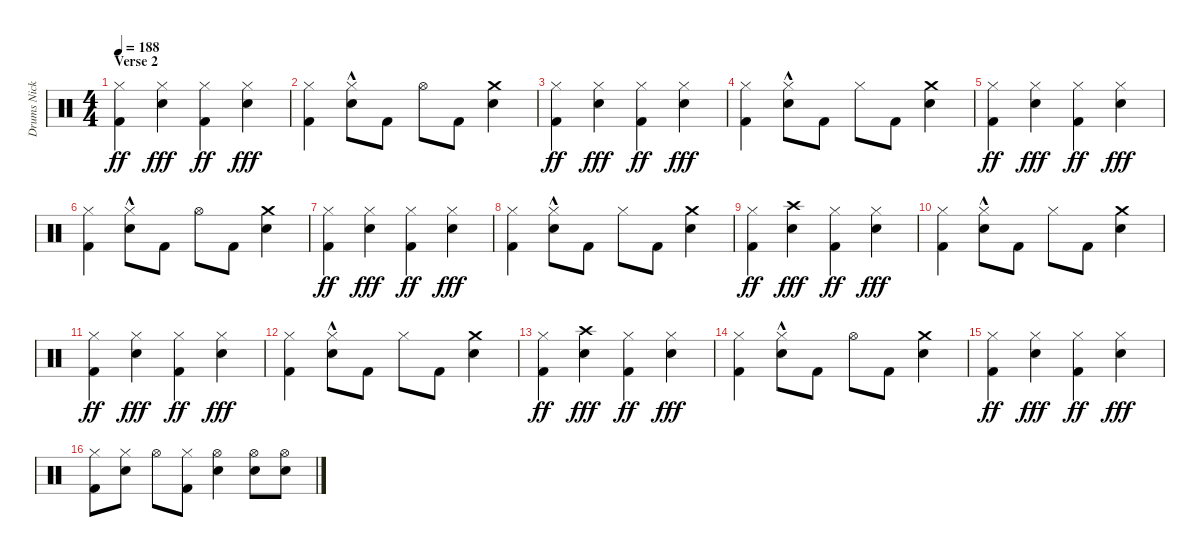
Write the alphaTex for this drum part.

\track ("Drums Nicko McBrain" "Drums Nick") {instrument percussion}
\staff {score}
\articulation defaults
\ts (4 4)
\section ("" "Verse 2")
\tempo 188
\clef neutral
\ks c
("Hi-Hat (closed)" "Kick (hit) 2").4{dy ff} ("Hi-Hat (closed)" "Electric Snare (hit)").4{dy fff} ("Hi-Hat (closed)" "Kick (hit) 2").4{dy ff} ("Hi-Hat (closed)" "Electric Snare (hit)").4{dy fff} |
("Hi-Hat (closed)" "Kick (hit) 2").4 ("Hi-Hat (closed)" "Electric Snare (hit)"{hac}).8 "Kick (hit) 2".8 "Hi-Hat (open)".8 "Kick (hit) 2".8 ("Crash medium (hit)" "Electric Snare (hit)").4 |
("Hi-Hat (closed)" "Kick (hit) 2").4{dy ff} ("Hi-Hat (closed)" "Electric Snare (hit)").4{dy fff} ("Hi-Hat (closed)" "Kick (hit) 2").4{dy ff} ("Hi-Hat (closed)" "Electric Snare (hit)").4{dy fff} |
("Hi-Hat (closed)" "Kick (hit) 2").4 ("Hi-Hat (closed)" "Electric Snare (hit)"{hac}).8 "Kick (hit) 2".8 "Hi-Hat (closed)".8 "Kick (hit) 2".8 ("Crash medium (hit)" "Electric Snare (hit)").4 |
("Hi-Hat (closed)" "Kick (hit) 2").4{dy ff} ("Hi-Hat (closed)" "Electric Snare (hit)").4{dy fff} ("Hi-Hat (closed)" "Kick (hit) 2").4{dy ff} ("Hi-Hat (closed)" "Electric Snare (hit)").4{dy fff} |
("Hi-Hat (closed)" "Kick (hit) 2").4 ("Hi-Hat (closed)" "Electric Snare (hit)"{hac}).8 "Kick (hit) 2".8 "Hi-Hat (open)".8 "Kick (hit) 2".8 ("Crash medium (hit)" "Electric Snare (hit)").4 |
("Hi-Hat (closed)" "Kick (hit) 2").4{dy ff} ("Hi-Hat (closed)" "Electric Snare (hit)").4{dy fff} ("Hi-Hat (closed)" "Kick (hit) 2").4{dy ff} ("Hi-Hat (closed)" "Electric Snare (hit)").4{dy fff} |
("Hi-Hat (closed)" "Kick (hit) 2").4 ("Hi-Hat (closed)" "Electric Snare (hit)"{hac}).8 "Kick (hit) 2".8 "Hi-Hat (closed)".8 "Kick (hit) 2".8 ("Crash medium (hit)" "Electric Snare (hit)").4 |
("Hi-Hat (closed)" "Kick (hit) 2").4{dy ff} ("Crash high (hit)" "Electric Snare (hit)").4{dy fff} ("Hi-Hat (closed)" "Kick (hit) 2").4{dy ff} ("Hi-Hat (closed)" "Electric Snare (hit)").4{dy fff} |
("Hi-Hat (closed)" "Kick (hit) 2").4 ("Hi-Hat (closed)" "Electric Snare (hit)"{hac}).8 "Kick (hit) 2".8 "Hi-Hat (closed)".8 "Kick (hit) 2".8 ("Crash medium (hit)" "Electric Snare (hit)").4 |
("Hi-Hat (closed)" "Kick (hit) 2").4{dy ff} ("Hi-Hat (closed)" "Electric Snare (hit)").4{dy fff} ("Hi-Hat (closed)" "Kick (hit) 2").4{dy ff} ("Hi-Hat (closed)" "Electric Snare (hit)").4{dy fff} |
("Hi-Hat (closed)" "Kick (hit) 2").4 ("Hi-Hat (closed)" "Electric Snare (hit)"{hac}).8 "Kick (hit) 2".8 "Hi-Hat (closed)".8 "Kick (hit) 2".8 ("Crash medium (hit)" "Electric Snare (hit)").4 |
("Hi-Hat (closed)" "Kick (hit) 2").4{dy ff} ("Crash high (hit)" "Electric Snare (hit)").4{dy fff} ("Hi-Hat (closed)" "Kick (hit) 2").4{dy ff} ("Hi-Hat (closed)" "Electric Snare (hit)").4{dy fff} |
("Hi-Hat (closed)" "Kick (hit) 2").4 ("Hi-Hat (closed)" "Electric Snare (hit)"{hac}).8 "Kick (hit) 2".8 "Hi-Hat (open)".8 "Kick (hit) 2".8 ("Crash medium (hit)" "Electric Snare (hit)").4 |
("Hi-Hat (closed)" "Kick (hit) 2").4{dy ff} ("Hi-Hat (closed)" "Electric Snare (hit)").4{dy fff} ("Hi-Hat (closed)" "Kick (hit) 2").4{dy ff} ("Hi-Hat (closed)" "Electric Snare (hit)").4{dy fff} |
("Hi-Hat (closed)" "Kick (hit) 2").8 ("Hi-Hat (closed)" "Electric Snare (hit)").8 "Hi-Hat (open)".8 ("Hi-Hat (closed)" "Kick (hit) 2").8 ("Hi-Hat (open)" "Electric Snare (hit)").4 ("Hi-Hat (open)" "Electric Snare (hit)").8 ("Hi-Hat (open)" "Electric Snare (hit)").8
